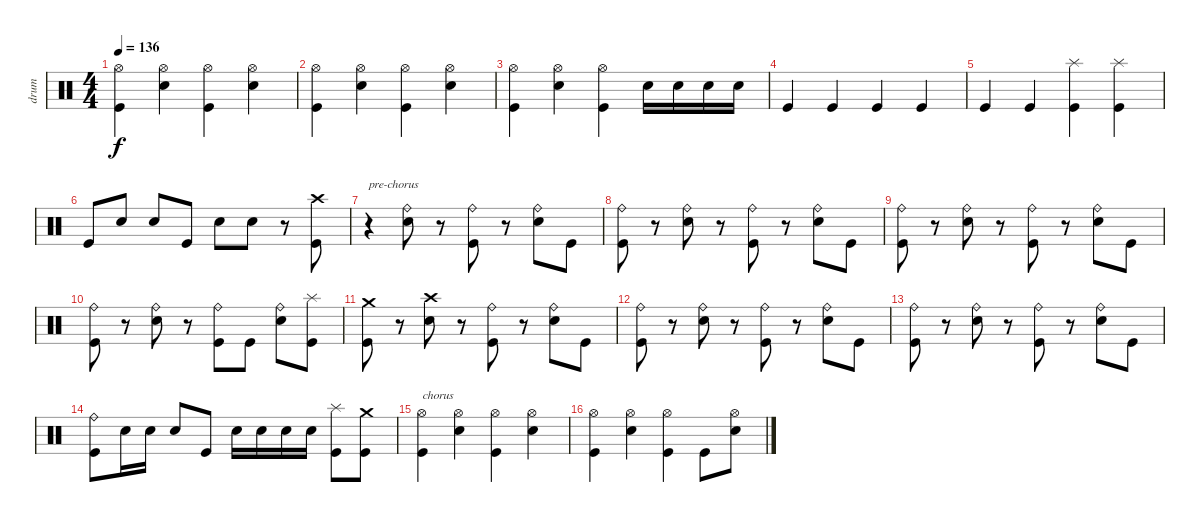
\track ("drum" "drum") {instrument percussion}
\staff {score}
\articulation defaults
\ts (4 4)
\tempo 136
\clef neutral
\ks c
("Kick (hit)" "Hi-Hat (open)").4{dy f} ("Electric Snare (hit)" "Hi-Hat (open)").4 ("Kick (hit)" "Hi-Hat (open)").4 ("Electric Snare (hit)" "Hi-Hat (open)").4 |
("Kick (hit)" "Hi-Hat (open)").4 ("Electric Snare (hit)" "Hi-Hat (open)").4 ("Kick (hit)" "Hi-Hat (open)").4 ("Electric Snare (hit)" "Hi-Hat (open)").4 |
("Kick (hit)" "Hi-Hat (open)").4 ("Electric Snare (hit)" "Hi-Hat (open)").4 ("Kick (hit)" "Hi-Hat (open)").4 "Electric Snare (hit)".16 "Electric Snare (hit)".16 "Electric Snare (hit)".16 "Electric Snare (hit)".16 |
"Kick (hit)".4 "Kick (hit)".4 "Kick (hit)".4 "Kick (hit)".4 |
"Kick (hit)".4 "Kick (hit)".4 ("Kick (hit)" "Splash (hit)").4 ("Kick (hit)" "Splash (hit)").4 |
"Kick (hit)".8 "Electric Snare (hit)".8 "Electric Snare (hit)".8 "Kick (hit)".8 "Electric Snare (hit)".8 "Electric Snare (hit)".8 r.8 ("Kick (hit)" "Crash high (hit)").8 |
r.4{txt "pre-chorus"} ("Electric Snare (hit)" "Ride (bell)").8 r.8 ("Kick (hit)" "Ride (bell)").8 r.8 ("Electric Snare (hit)" "Ride (bell)").8 "Kick (hit)".8 |
("Kick (hit)" "Ride (bell)").8 r.8 ("Electric Snare (hit)" "Ride (bell)").8 r.8 ("Kick (hit)" "Ride (bell)").8 r.8 ("Electric Snare (hit)" "Ride (bell)").8 "Kick (hit)".8 |
("Kick (hit)" "Ride (bell)").8 r.8 ("Electric Snare (hit)" "Ride (bell)").8 r.8 ("Kick (hit)" "Ride (bell)").8 r.8 ("Electric Snare (hit)" "Ride (bell)").8 "Kick (hit)".8 |
("Kick (hit)" "Ride (bell)").8 r.8 ("Electric Snare (hit)" "Ride (bell)").8 r.8 ("Kick (hit)" "Ride (bell)").8 "Kick (hit)".8 ("Electric Snare (hit)" "Ride (bell)").8 ("Kick (hit)" "Splash (hit)").8 |
("Kick (hit)" "Crash medium (hit)").8 r.8 ("Electric Snare (hit)" "Crash high (hit)").8 r.8 ("Kick (hit)" "Ride (bell)").8 r.8 ("Electric Snare (hit)" "Ride (bell)").8 "Kick (hit)".8 |
("Kick (hit)" "Ride (bell)").8 r.8 ("Electric Snare (hit)" "Ride (bell)").8 r.8 ("Kick (hit)" "Ride (bell)").8 r.8 ("Electric Snare (hit)" "Ride (bell)").8 "Kick (hit)".8 |
("Kick (hit)" "Ride (bell)").8 r.8 ("Electric Snare (hit)" "Ride (bell)").8 r.8 ("Kick (hit)" "Ride (bell)").8 r.8 ("Electric Snare (hit)" "Ride (bell)").8 "Kick (hit)".8 |
("Kick (hit)" "Ride (bell)").8 "Electric Snare (hit)".16 "Electric Snare (hit)".16 "Electric Snare (hit)".8 "Kick (hit)".8 "Electric Snare (hit)".16 "Electric Snare (hit)".16 "Electric Snare (hit)".16 "Electric Snare (hit)".16 ("Kick (hit)" "Splash (hit)").8 ("Kick (hit)" "Crash medium (hit)").8 |
("Kick (hit)" "Hi-Hat (open)").4{txt "chorus"} ("Electric Snare (hit)" "Hi-Hat (open)").4 ("Kick (hit)" "Hi-Hat (open)").4 ("Electric Snare (hit)" "Hi-Hat (open)").4 |
("Kick (hit)" "Hi-Hat (open)").4 ("Electric Snare (hit)" "Hi-Hat (open)").4 ("Kick (hit)" "Hi-Hat (open)").4 "Kick (hit)".8 ("Electric Snare (hit)" "Hi-Hat (open)").8
